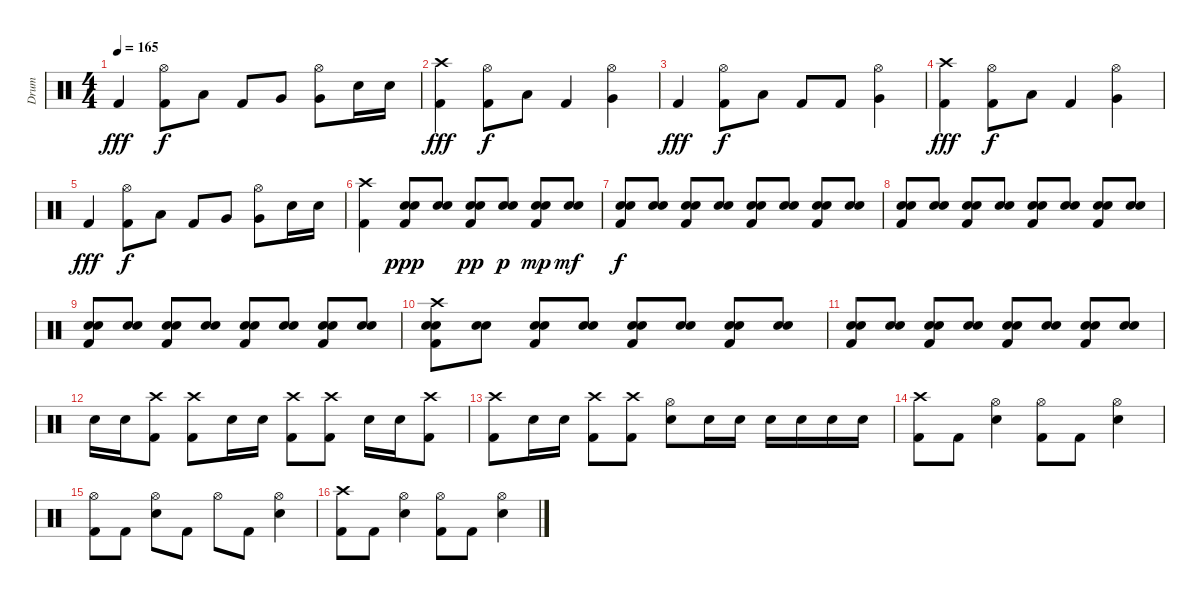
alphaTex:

\track ("Drum" "Drum") {instrument percussion}
\staff {score}
\articulation defaults
\ts (4 4)
\tempo 165
\clef neutral
\ks c "Kick (hit) 2".4{dy fff}
("Hi-Hat (open)" "Kick (hit) 2").8{dy f} "Low Tom (hit)".8 "Kick (hit) 2".8 "Very Low Tom (hit)".8 ("Hi-Hat (open)" "Very Low Tom (hit)").8 "Electric Snare (hit)".16 "Electric Snare (hit)".16 |
("Crash high (hit)" "Kick (hit) 2").4{dy fff} ("Hi-Hat (open)" "Kick (hit) 2").8{dy f} "Low Tom (hit)".8 "Kick (hit) 2".4 ("Hi-Hat (open)" "Very Low Tom (hit)").4 |
"Kick (hit) 2".4{dy fff} ("Hi-Hat (open)" "Kick (hit) 2").8{dy f} "Low Tom (hit)".8 "Kick (hit) 2".8 "Kick (hit) 2".8 ("Hi-Hat (open)" "Very Low Tom (hit)").4 |
("Crash high (hit)" "Kick (hit) 2").4{dy fff} ("Hi-Hat (open)" "Kick (hit) 2").8{dy f} "Low Tom (hit)".8 "Kick (hit) 2".4 ("Hi-Hat (open)" "Very Low Tom (hit)").4 |
"Kick (hit) 2".4{dy fff} ("Hi-Hat (open)" "Kick (hit) 2").8{dy f} "Low Tom (hit)".8 "Kick (hit) 2".8 "Very Low Tom (hit)".8 ("Hi-Hat (open)" "Very Low Tom (hit)").8 "Electric Snare (hit)".16 "Electric Snare (hit)".16 |
("Crash high (hit)" "Kick (hit) 2").4 ("Electric Snare (hit)" "Electric Snare (hit)" "Kick (hit) 2").8{dy ppp} ("Electric Snare (hit)" "Electric Snare (hit)").8 ("Electric Snare (hit)" "Electric Snare (hit)" "Kick (hit) 2").8{dy pp} ("Electric Snare (hit)" "Electric Snare (hit)").8{dy p} ("Electric Snare (hit)" "Electric Snare (hit)" "Kick (hit) 2").8{dy mp} ("Electric Snare (hit)" "Electric Snare (hit)").8{dy mf} |
("Electric Snare (hit)" "Electric Snare (hit)" "Kick (hit) 2").8{dy f} ("Electric Snare (hit)" "Electric Snare (hit)").8 ("Electric Snare (hit)" "Electric Snare (hit)" "Kick (hit) 2").8 ("Electric Snare (hit)" "Electric Snare (hit)").8 ("Electric Snare (hit)" "Electric Snare (hit)" "Kick (hit) 2").8 ("Electric Snare (hit)" "Electric Snare (hit)").8 ("Electric Snare (hit)" "Electric Snare (hit)" "Kick (hit) 2").8 ("Electric Snare (hit)" "Electric Snare (hit)").8 |
("Electric Snare (hit)" "Electric Snare (hit)" "Kick (hit) 2").8 ("Electric Snare (hit)" "Electric Snare (hit)").8 ("Electric Snare (hit)" "Electric Snare (hit)" "Kick (hit) 2").8 ("Electric Snare (hit)" "Electric Snare (hit)").8 ("Electric Snare (hit)" "Electric Snare (hit)" "Kick (hit) 2").8 ("Electric Snare (hit)" "Electric Snare (hit)").8 ("Electric Snare (hit)" "Electric Snare (hit)" "Kick (hit) 2").8 ("Electric Snare (hit)" "Electric Snare (hit)").8 |
("Electric Snare (hit)" "Electric Snare (hit)" "Kick (hit) 2").8 ("Electric Snare (hit)" "Electric Snare (hit)").8 ("Electric Snare (hit)" "Electric Snare (hit)" "Kick (hit) 2").8 ("Electric Snare (hit)" "Electric Snare (hit)").8 ("Electric Snare (hit)" "Electric Snare (hit)" "Kick (hit) 2").8 ("Electric Snare (hit)" "Electric Snare (hit)").8 ("Electric Snare (hit)" "Electric Snare (hit)" "Kick (hit) 2").8 ("Electric Snare (hit)" "Electric Snare (hit)").8 |
("Crash high (hit)" "Electric Snare (hit)" "Electric Snare (hit)" "Kick (hit) 2").8 ("Electric Snare (hit)" "Electric Snare (hit)").8 ("Electric Snare (hit)" "Electric Snare (hit)" "Kick (hit) 2").8 ("Electric Snare (hit)" "Electric Snare (hit)").8 ("Electric Snare (hit)" "Electric Snare (hit)" "Kick (hit) 2").8 ("Electric Snare (hit)" "Electric Snare (hit)").8 ("Electric Snare (hit)" "Electric Snare (hit)" "Kick (hit) 2").8 ("Electric Snare (hit)" "Electric Snare (hit)").8 |
("Electric Snare (hit)" "Electric Snare (hit)" "Kick (hit) 2").8 ("Electric Snare (hit)" "Electric Snare (hit)").8 ("Electric Snare (hit)" "Electric Snare (hit)" "Kick (hit) 2").8 ("Electric Snare (hit)" "Electric Snare (hit)").8 ("Electric Snare (hit)" "Electric Snare (hit)" "Kick (hit) 2").8 ("Electric Snare (hit)" "Electric Snare (hit)").8 ("Electric Snare (hit)" "Electric Snare (hit)" "Kick (hit) 2").8 ("Electric Snare (hit)" "Electric Snare (hit)").8 |
"Electric Snare (hit)".16 "Electric Snare (hit)".16 ("Crash high (hit)" "Kick (hit) 2").8 ("Crash high (hit)" "Kick (hit) 2").8 "Electric Snare (hit)".16 "Electric Snare (hit)".16 ("Crash high (hit)" "Kick (hit) 2").8 ("Crash high (hit)" "Kick (hit) 2").8 "Electric Snare (hit)".16 "Electric Snare (hit)".16 ("Crash high (hit)" "Kick (hit) 2").8 |
("Crash high (hit)" "Kick (hit) 2").8 "Electric Snare (hit)".16 "Electric Snare (hit)".16 ("Crash high (hit)" "Kick (hit) 2").8 ("Crash high (hit)" "Kick (hit) 2").8 ("Hi-Hat (open)" "Electric Snare (hit)").8 "Electric Snare (hit)".16 "Electric Snare (hit)".16 "Electric Snare (hit)".16 "Electric Snare (hit)".16 "Electric Snare (hit)".16 "Electric Snare (hit)".16 |
("Crash high (hit)" "Kick (hit) 2").8 "Kick (hit) 2".8 ("Hi-Hat (open)" "Electric Snare (hit)").4 ("Hi-Hat (open)" "Kick (hit) 2").8 "Kick (hit) 2".8 ("Hi-Hat (open)" "Electric Snare (hit)").4 |
("Hi-Hat (open)" "Kick (hit) 2").8 "Kick (hit) 2".8 ("Hi-Hat (open)" "Electric Snare (hit)").8 "Kick (hit) 2".8 "Hi-Hat (open)".8 "Kick (hit) 2".8 ("Hi-Hat (open)" "Electric Snare (hit)").4 |
("Crash high (hit)" "Kick (hit) 2").8 "Kick (hit) 2".8 ("Hi-Hat (open)" "Electric Snare (hit)").4 ("Hi-Hat (open)" "Kick (hit) 2").8 "Kick (hit) 2".8 ("Hi-Hat (open)" "Electric Snare (hit)").4
